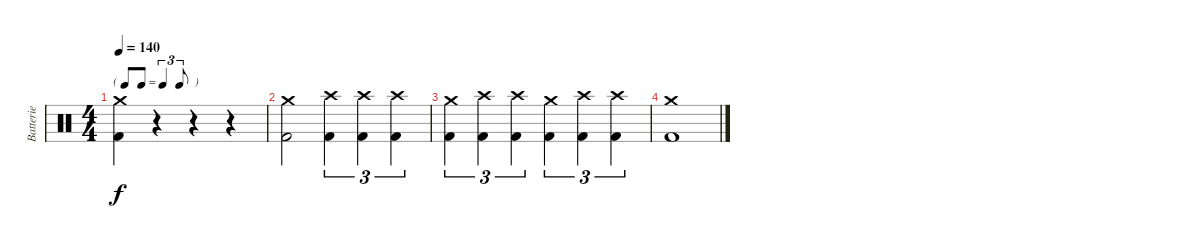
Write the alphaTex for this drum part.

\track ("Batterie" "Batterie") {instrument percussion}
\staff {score}
\articulation defaults
\ts (4 4)
\tf triplet8th
\tempo 140
\clef neutral
\ks c
("Crash medium (hit)" "Kick (hit) 2").4{dy f} r.4 r.4 r.4 |
("Crash medium (hit)" "Kick (hit) 2").2 ("Crash high (hit)" "Kick (hit) 2").4{tu (3 2)} ("Crash high (hit)" "Kick (hit) 2").4{tu (3 2)} ("Crash high (hit)" "Kick (hit) 2").4{tu (3 2)} |
("Crash medium (hit)" "Kick (hit) 2").4{tu (3 2)} ("Crash high (hit)" "Kick (hit) 2").4{tu (3 2)} ("Crash high (hit)" "Kick (hit) 2").4{tu (3 2)} ("Crash medium (hit)" "Kick (hit) 2").4{tu (3 2)} ("Crash high (hit)" "Kick (hit) 2").4{tu (3 2)} ("Crash high (hit)" "Kick (hit) 2").4{tu (3 2)} |
("Crash medium (hit)" "Kick (hit) 2").1
